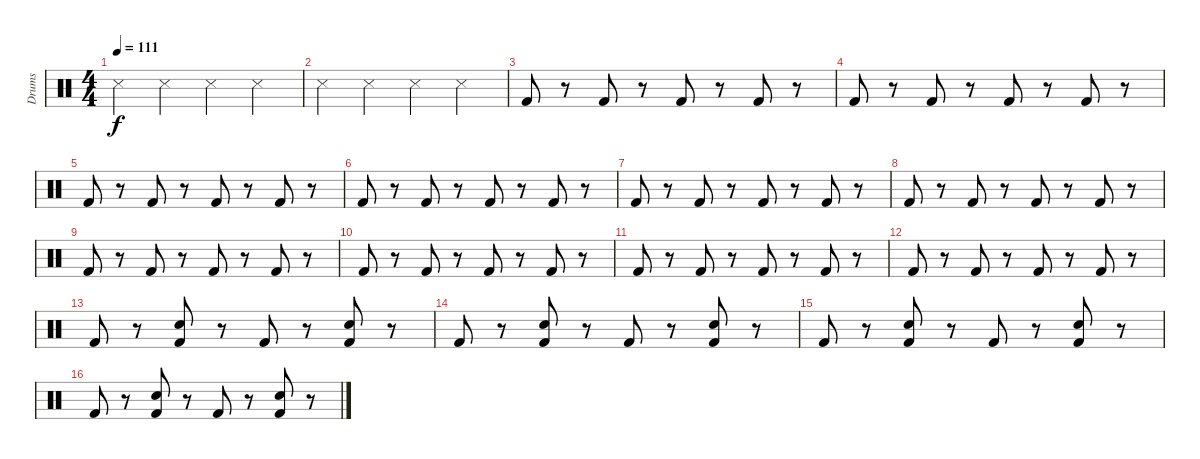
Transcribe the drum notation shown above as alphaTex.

\track ("Drums" "Drums") {instrument percussion}
\staff {score}
\articulation defaults
\ts (4 4)
\tempo 111
\clef neutral
\ks c "Snare (side stick) 3".4{dy f} "Snare (side stick) 3".4 "Snare (side stick) 3".4 "Snare (side stick) 3".4
|
"Snare (side stick) 3".4 "Snare (side stick) 3".4 "Snare (side stick) 3".4 "Snare (side stick) 3".4 |
"Kick (hit) 2".8 r.8 "Kick (hit) 2".8 r.8 "Kick (hit) 2".8 r.8 "Kick (hit) 2".8 r.8 |
"Kick (hit) 2".8 r.8 "Kick (hit) 2".8 r.8 "Kick (hit) 2".8 r.8 "Kick (hit) 2".8 r.8 |
"Kick (hit) 2".8 r.8 "Kick (hit) 2".8 r.8 "Kick (hit) 2".8 r.8 "Kick (hit) 2".8 r.8 |
"Kick (hit) 2".8 r.8 "Kick (hit) 2".8 r.8 "Kick (hit) 2".8 r.8 "Kick (hit) 2".8 r.8 |
"Kick (hit) 2".8 r.8 "Kick (hit) 2".8 r.8 "Kick (hit) 2".8 r.8 "Kick (hit) 2".8 r.8 |
"Kick (hit) 2".8 r.8 "Kick (hit) 2".8 r.8 "Kick (hit) 2".8 r.8 "Kick (hit) 2".8 r.8 |
"Kick (hit) 2".8 r.8 "Kick (hit) 2".8 r.8 "Kick (hit) 2".8 r.8 "Kick (hit) 2".8 r.8 |
"Kick (hit) 2".8 r.8 "Kick (hit) 2".8 r.8 "Kick (hit) 2".8 r.8 "Kick (hit) 2".8 r.8 |
"Kick (hit) 2".8 r.8 "Kick (hit) 2".8 r.8 "Kick (hit) 2".8 r.8 "Kick (hit) 2".8 r.8 |
"Kick (hit) 2".8 r.8 "Kick (hit) 2".8 r.8 "Kick (hit) 2".8 r.8 "Kick (hit) 2".8 r.8 |
"Kick (hit) 2".8 r.8 ("Kick (hit) 2" "Electric Snare (hit)").8 r.8 "Kick (hit) 2".8 r.8 ("Kick (hit) 2" "Electric Snare (hit)").8 r.8 |
"Kick (hit) 2".8 r.8 ("Kick (hit) 2" "Electric Snare (hit)").8 r.8 "Kick (hit) 2".8 r.8 ("Kick (hit) 2" "Electric Snare (hit)").8 r.8 |
"Kick (hit) 2".8 r.8 ("Kick (hit) 2" "Electric Snare (hit)").8 r.8 "Kick (hit) 2".8 r.8 ("Kick (hit) 2" "Electric Snare (hit)").8 r.8 |
"Kick (hit) 2".8 r.8 ("Kick (hit) 2" "Electric Snare (hit)").8 r.8 "Kick (hit) 2".8 r.8 ("Kick (hit) 2" "Electric Snare (hit)").8 r.8
